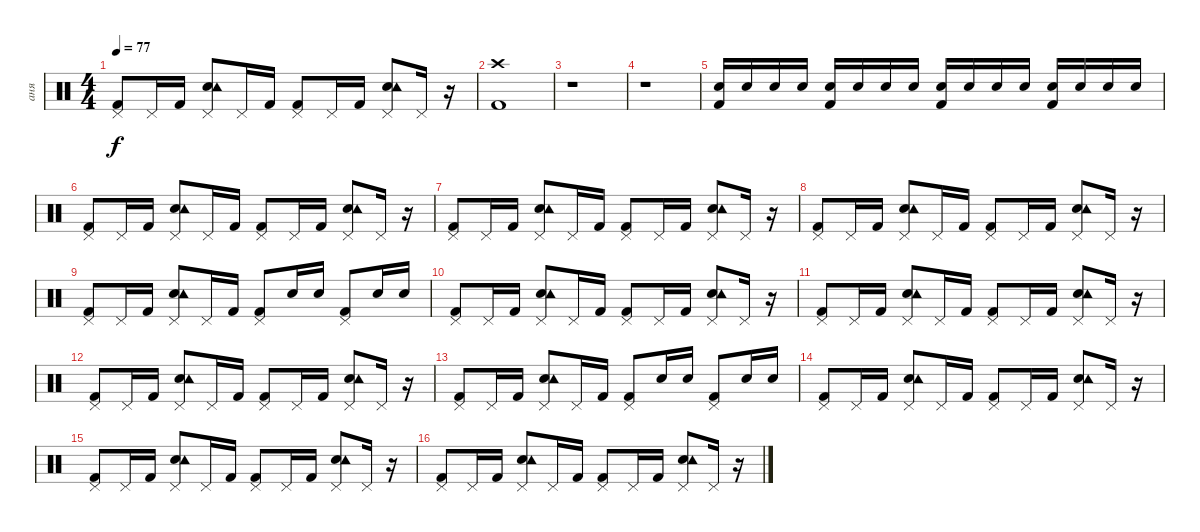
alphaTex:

\track ("аня" "аня") {instrument percussion}
\staff {score}
\articulation defaults
\ts (4 4)
\tempo 77
\clef neutral
\ks c
("Kick (hit) 2" "Pedal Hi-Hat (hit)").8{dy f} "Pedal Hi-Hat (hit)".16 "Kick (hit) 2".16 ("Snare (hit) 2" "Tambourine (hit)" "Pedal Hi-Hat (hit)").8 "Pedal Hi-Hat (hit)".16 "Kick (hit) 2".16 ("Kick (hit) 2" "Pedal Hi-Hat (hit)").8 "Pedal Hi-Hat (hit)".16 "Kick (hit) 2".16 ("Snare (hit) 2" "Tambourine (hit)" "Pedal Hi-Hat (hit)").8 "Pedal Hi-Hat (hit)".16 r.16 |
("Kick (hit) 2" "Crash high (hit)").1 |
r.1 |
r.1 |
("Snare (hit) 2" "Kick (hit) 2").16 "Snare (hit) 2".16 "Snare (hit) 2".16 "Snare (hit) 2".16 ("Snare (hit) 2" "Kick (hit) 2").16 "Snare (hit) 2".16 "Snare (hit) 2".16 "Snare (hit) 2".16 ("Snare (hit) 2" "Kick (hit) 2").16 "Snare (hit) 2".16 "Snare (hit) 2".16 "Snare (hit) 2".16 ("Snare (hit) 2" "Kick (hit) 2").16 "Snare (hit) 2".16 "Snare (hit) 2".16 "Snare (hit) 2".16 |
("Kick (hit) 2" "Pedal Hi-Hat (hit)").8 "Pedal Hi-Hat (hit)".16 "Kick (hit) 2".16 ("Snare (hit) 2" "Tambourine (hit)" "Pedal Hi-Hat (hit)").8 "Pedal Hi-Hat (hit)".16 "Kick (hit) 2".16 ("Kick (hit) 2" "Pedal Hi-Hat (hit)").8 "Pedal Hi-Hat (hit)".16 "Kick (hit) 2".16 ("Snare (hit) 2" "Tambourine (hit)" "Pedal Hi-Hat (hit)").8 "Pedal Hi-Hat (hit)".16 r.16 |
("Kick (hit) 2" "Pedal Hi-Hat (hit)").8 "Pedal Hi-Hat (hit)".16 "Kick (hit) 2".16 ("Snare (hit) 2" "Tambourine (hit)" "Pedal Hi-Hat (hit)").8 "Pedal Hi-Hat (hit)".16 "Kick (hit) 2".16 ("Kick (hit) 2" "Pedal Hi-Hat (hit)").8 "Pedal Hi-Hat (hit)".16 "Kick (hit) 2".16 ("Snare (hit) 2" "Tambourine (hit)" "Pedal Hi-Hat (hit)").8 "Pedal Hi-Hat (hit)".16 r.16 |
("Kick (hit) 2" "Pedal Hi-Hat (hit)").8 "Pedal Hi-Hat (hit)".16 "Kick (hit) 2".16 ("Snare (hit) 2" "Tambourine (hit)" "Pedal Hi-Hat (hit)").8 "Pedal Hi-Hat (hit)".16 "Kick (hit) 2".16 ("Kick (hit) 2" "Pedal Hi-Hat (hit)").8 "Pedal Hi-Hat (hit)".16 "Kick (hit) 2".16 ("Snare (hit) 2" "Tambourine (hit)" "Pedal Hi-Hat (hit)").8 "Pedal Hi-Hat (hit)".16 r.16 |
("Kick (hit) 2" "Pedal Hi-Hat (hit)").8 "Pedal Hi-Hat (hit)".16 "Kick (hit) 2".16 ("Snare (hit) 2" "Tambourine (hit)" "Pedal Hi-Hat (hit)").8 "Pedal Hi-Hat (hit)".16 "Kick (hit) 2".16 ("Kick (hit) 2" "Pedal Hi-Hat (hit)").8 "Snare (hit) 2".16 "Snare (hit) 2".16 ("Kick (hit) 2" "Pedal Hi-Hat (hit)").8 "Snare (hit) 2".16 "Snare (hit) 2".16 |
("Kick (hit) 2" "Pedal Hi-Hat (hit)").8 "Pedal Hi-Hat (hit)".16 "Kick (hit) 2".16 ("Snare (hit) 2" "Tambourine (hit)" "Pedal Hi-Hat (hit)").8 "Pedal Hi-Hat (hit)".16 "Kick (hit) 2".16 ("Kick (hit) 2" "Pedal Hi-Hat (hit)").8 "Pedal Hi-Hat (hit)".16 "Kick (hit) 2".16 ("Snare (hit) 2" "Tambourine (hit)" "Pedal Hi-Hat (hit)").8 "Pedal Hi-Hat (hit)".16 r.16 |
("Kick (hit) 2" "Pedal Hi-Hat (hit)").8 "Pedal Hi-Hat (hit)".16 "Kick (hit) 2".16 ("Snare (hit) 2" "Tambourine (hit)" "Pedal Hi-Hat (hit)").8 "Pedal Hi-Hat (hit)".16 "Kick (hit) 2".16 ("Kick (hit) 2" "Pedal Hi-Hat (hit)").8 "Pedal Hi-Hat (hit)".16 "Kick (hit) 2".16 ("Snare (hit) 2" "Tambourine (hit)" "Pedal Hi-Hat (hit)").8 "Pedal Hi-Hat (hit)".16 r.16 |
("Kick (hit) 2" "Pedal Hi-Hat (hit)").8 "Pedal Hi-Hat (hit)".16 "Kick (hit) 2".16 ("Snare (hit) 2" "Tambourine (hit)" "Pedal Hi-Hat (hit)").8 "Pedal Hi-Hat (hit)".16 "Kick (hit) 2".16 ("Kick (hit) 2" "Pedal Hi-Hat (hit)").8 "Pedal Hi-Hat (hit)".16 "Kick (hit) 2".16 ("Snare (hit) 2" "Tambourine (hit)" "Pedal Hi-Hat (hit)").8 "Pedal Hi-Hat (hit)".16 r.16 |
("Kick (hit) 2" "Pedal Hi-Hat (hit)").8 "Pedal Hi-Hat (hit)".16 "Kick (hit) 2".16 ("Snare (hit) 2" "Tambourine (hit)" "Pedal Hi-Hat (hit)").8 "Pedal Hi-Hat (hit)".16 "Kick (hit) 2".16 ("Kick (hit) 2" "Pedal Hi-Hat (hit)").8 "Snare (hit) 2".16 "Snare (hit) 2".16 ("Kick (hit) 2" "Pedal Hi-Hat (hit)").8 "Snare (hit) 2".16 "Snare (hit) 2".16 |
("Kick (hit) 2" "Pedal Hi-Hat (hit)").8 "Pedal Hi-Hat (hit)".16 "Kick (hit) 2".16 ("Snare (hit) 2" "Tambourine (hit)" "Pedal Hi-Hat (hit)").8 "Pedal Hi-Hat (hit)".16 "Kick (hit) 2".16 ("Kick (hit) 2" "Pedal Hi-Hat (hit)").8 "Pedal Hi-Hat (hit)".16 "Kick (hit) 2".16 ("Snare (hit) 2" "Tambourine (hit)" "Pedal Hi-Hat (hit)").8 "Pedal Hi-Hat (hit)".16 r.16 |
("Kick (hit) 2" "Pedal Hi-Hat (hit)").8 "Pedal Hi-Hat (hit)".16 "Kick (hit) 2".16 ("Snare (hit) 2" "Tambourine (hit)" "Pedal Hi-Hat (hit)").8 "Pedal Hi-Hat (hit)".16 "Kick (hit) 2".16 ("Kick (hit) 2" "Pedal Hi-Hat (hit)").8 "Pedal Hi-Hat (hit)".16 "Kick (hit) 2".16 ("Snare (hit) 2" "Tambourine (hit)" "Pedal Hi-Hat (hit)").8 "Pedal Hi-Hat (hit)".16 r.16 |
("Kick (hit) 2" "Pedal Hi-Hat (hit)").8 "Pedal Hi-Hat (hit)".16 "Kick (hit) 2".16 ("Snare (hit) 2" "Tambourine (hit)" "Pedal Hi-Hat (hit)").8 "Pedal Hi-Hat (hit)".16 "Kick (hit) 2".16 ("Kick (hit) 2" "Pedal Hi-Hat (hit)").8 "Pedal Hi-Hat (hit)".16 "Kick (hit) 2".16 ("Snare (hit) 2" "Tambourine (hit)" "Pedal Hi-Hat (hit)").8 "Pedal Hi-Hat (hit)".16 r.16
